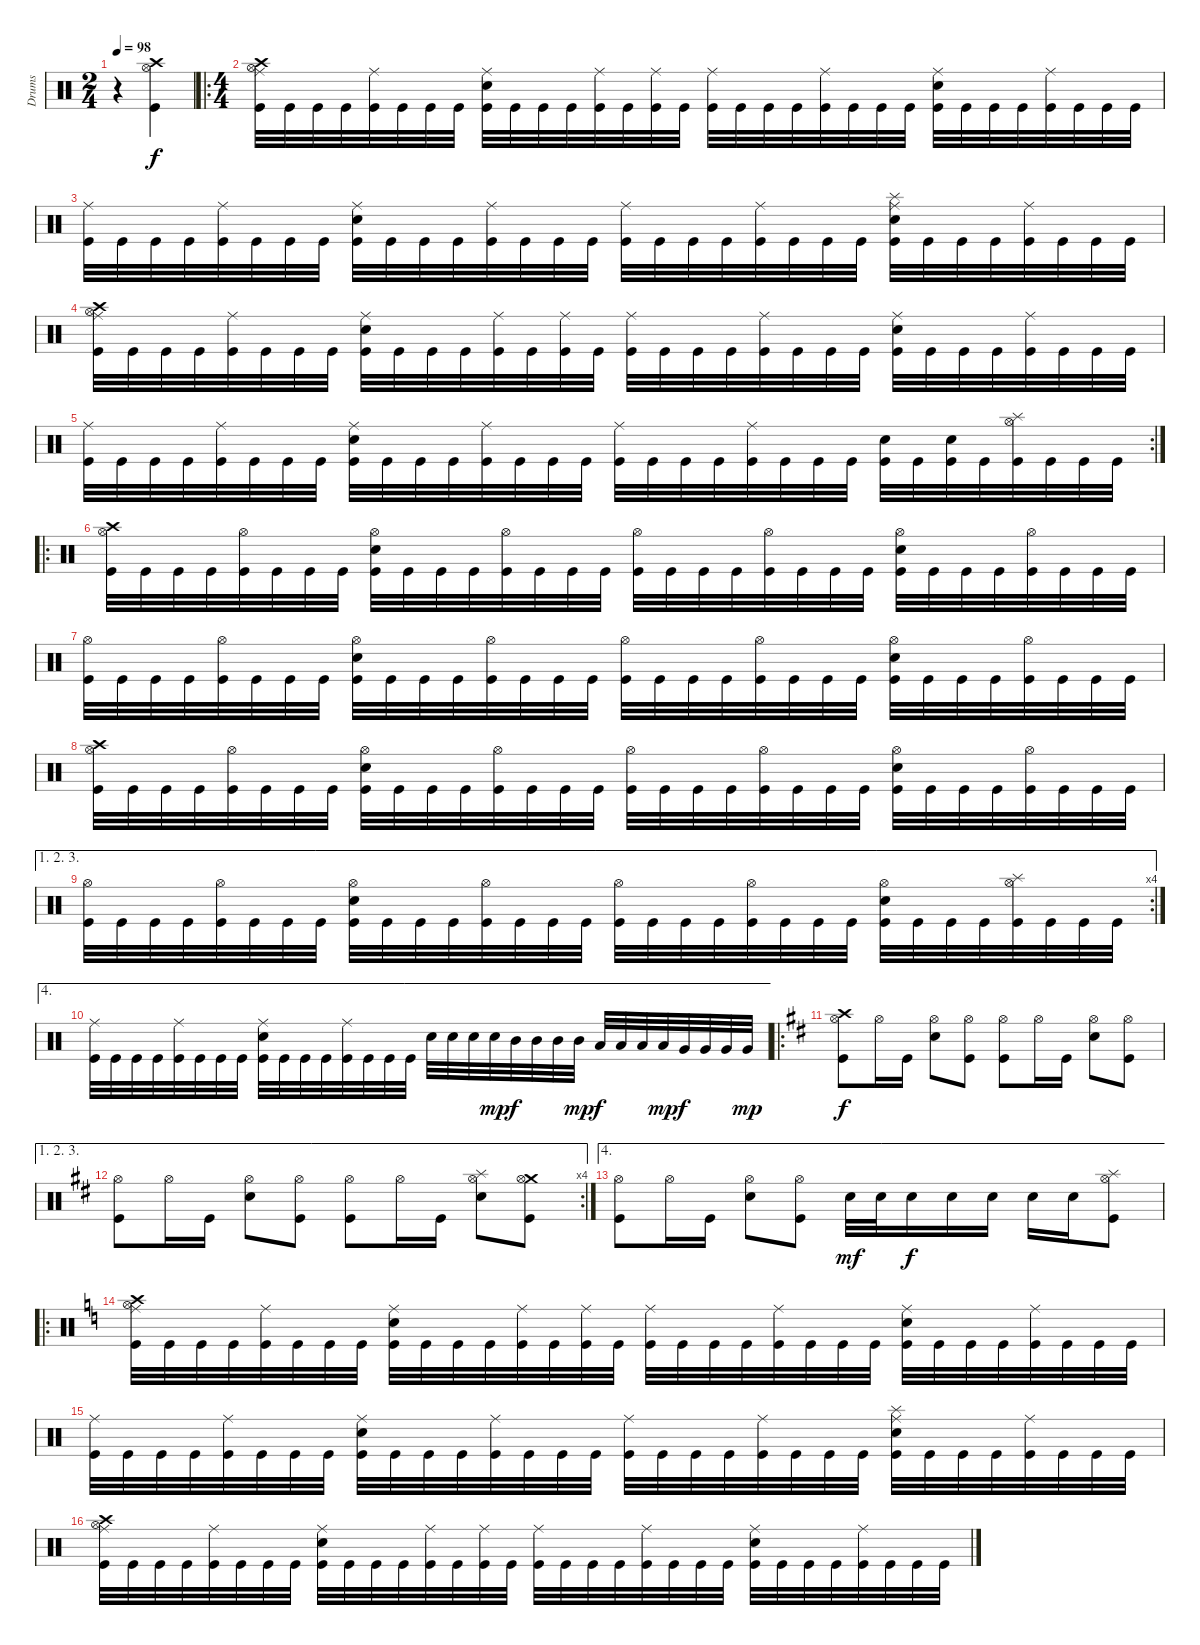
\track ("Drums" "Drums") {instrument percussion}
\staff {score}
\articulation defaults
\ts (2 4)
\tempo 98
\clef neutral
\ks c
r.4{dy f} ("Crash high (hit)" "Hi-Hat (open)" "Kick (hit)").4 |
\ro
\ts (4 4)
("Crash high (hit)" "Hi-Hat (open)" "Ride (middle)" "Kick (hit)").32 "Kick (hit)".32 "Kick (hit)".32 "Kick (hit)".32 ("Ride (middle)" "Kick (hit)").32 "Kick (hit)".32 "Kick (hit)".32 "Kick (hit)".32 ("Ride (middle)" "Electric Snare (hit)" "Kick (hit)").32 "Kick (hit)".32 "Kick (hit)".32 "Kick (hit)".32 ("Ride (middle)" "Kick (hit)").32 "Kick (hit)".32 ("Ride (middle)" "Kick (hit)").32 "Kick (hit)".32 ("Ride (middle)" "Kick (hit)").32 "Kick (hit)".32 "Kick (hit)".32 "Kick (hit)".32 ("Ride (middle)" "Kick (hit)").32 "Kick (hit)".32 "Kick (hit)".32 "Kick (hit)".32 ("Ride (middle)" "Electric Snare (hit)" "Kick (hit)").32 "Kick (hit)".32 "Kick (hit)".32 "Kick (hit)".32 ("Ride (middle)" "Kick (hit)").32 "Kick (hit)".32 "Kick (hit)".32 "Kick (hit)".32 |
("Ride (middle)" "Kick (hit)").32 "Kick (hit)".32 "Kick (hit)".32 "Kick (hit)".32 ("Ride (middle)" "Kick (hit)").32 "Kick (hit)".32 "Kick (hit)".32 "Kick (hit)".32 ("Ride (middle)" "Electric Snare (hit)" "Kick (hit)").32 "Kick (hit)".32 "Kick (hit)".32 "Kick (hit)".32 ("Ride (middle)" "Kick (hit)").32 "Kick (hit)".32 "Kick (hit)".32 "Kick (hit)".32 ("Ride (middle)" "Kick (hit)").32 "Kick (hit)".32 "Kick (hit)".32 "Kick (hit)".32 ("Ride (middle)" "Kick (hit)").32 "Kick (hit)".32 "Kick (hit)".32 "Kick (hit)".32 ("Ride (middle)" "Splash (hit)" "Electric Snare (hit)" "Kick (hit)").32 "Kick (hit)".32 "Kick (hit)".32 "Kick (hit)".32 ("Ride (middle)" "Kick (hit)").32 "Kick (hit)".32 "Kick (hit)".32 "Kick (hit)".32 |
("Crash high (hit)" "Hi-Hat (open)" "Ride (middle)" "Kick (hit)").32 "Kick (hit)".32 "Kick (hit)".32 "Kick (hit)".32 ("Ride (middle)" "Kick (hit)").32 "Kick (hit)".32 "Kick (hit)".32 "Kick (hit)".32 ("Ride (middle)" "Electric Snare (hit)" "Kick (hit)").32 "Kick (hit)".32 "Kick (hit)".32 "Kick (hit)".32 ("Ride (middle)" "Kick (hit)").32 "Kick (hit)".32 ("Ride (middle)" "Kick (hit)").32 "Kick (hit)".32 ("Ride (middle)" "Kick (hit)").32 "Kick (hit)".32 "Kick (hit)".32 "Kick (hit)".32 ("Ride (middle)" "Kick (hit)").32 "Kick (hit)".32 "Kick (hit)".32 "Kick (hit)".32 ("Ride (middle)" "Electric Snare (hit)" "Kick (hit)").32 "Kick (hit)".32 "Kick (hit)".32 "Kick (hit)".32 ("Ride (middle)" "Kick (hit)").32 "Kick (hit)".32 "Kick (hit)".32 "Kick (hit)".32 |
\rc 2
("Ride (middle)" "Kick (hit)").32 "Kick (hit)".32 "Kick (hit)".32 "Kick (hit)".32 ("Ride (middle)" "Kick (hit)").32 "Kick (hit)".32 "Kick (hit)".32 "Kick (hit)".32 ("Ride (middle)" "Electric Snare (hit)" "Kick (hit)").32 "Kick (hit)".32 "Kick (hit)".32 "Kick (hit)".32 ("Ride (middle)" "Kick (hit)").32 "Kick (hit)".32 "Kick (hit)".32 "Kick (hit)".32 ("Ride (middle)" "Kick (hit)").32 "Kick (hit)".32 "Kick (hit)".32 "Kick (hit)".32 ("Ride (middle)" "Kick (hit)").32 "Kick (hit)".32 "Kick (hit)".32 "Kick (hit)".32 ("Electric Snare (hit)" "Kick (hit)").32 "Kick (hit)".32 ("Electric Snare (hit)" "Kick (hit)").32 "Kick (hit)".32 ("Splash (hit)" "Hi-Hat (open)" "Kick (hit)").32 "Kick (hit)".32 "Kick (hit)".32 "Kick (hit)".32 |
\ro
("Crash high (hit)" "Hi-Hat (open)" "Kick (hit)").32 "Kick (hit)".32 "Kick (hit)".32 "Kick (hit)".32 ("Hi-Hat (open)" "Kick (hit)").32 "Kick (hit)".32 "Kick (hit)".32 "Kick (hit)".32 ("Hi-Hat (open)" "Electric Snare (hit)" "Kick (hit)").32 "Kick (hit)".32 "Kick (hit)".32 "Kick (hit)".32 ("Hi-Hat (open)" "Kick (hit)").32 "Kick (hit)".32 "Kick (hit)".32 "Kick (hit)".32 ("Hi-Hat (open)" "Kick (hit)").32 "Kick (hit)".32 "Kick (hit)".32 "Kick (hit)".32 ("Hi-Hat (open)" "Kick (hit)").32 "Kick (hit)".32 "Kick (hit)".32 "Kick (hit)".32 ("Hi-Hat (open)" "Electric Snare (hit)" "Kick (hit)").32 "Kick (hit)".32 "Kick (hit)".32 "Kick (hit)".32 ("Hi-Hat (open)" "Kick (hit)").32 "Kick (hit)".32 "Kick (hit)".32 "Kick (hit)".32 |
("Hi-Hat (open)" "Kick (hit)").32 "Kick (hit)".32 "Kick (hit)".32 "Kick (hit)".32 ("Hi-Hat (open)" "Kick (hit)").32 "Kick (hit)".32 "Kick (hit)".32 "Kick (hit)".32 ("Hi-Hat (open)" "Electric Snare (hit)" "Kick (hit)").32 "Kick (hit)".32 "Kick (hit)".32 "Kick (hit)".32 ("Hi-Hat (open)" "Kick (hit)").32 "Kick (hit)".32 "Kick (hit)".32 "Kick (hit)".32 ("Hi-Hat (open)" "Kick (hit)").32 "Kick (hit)".32 "Kick (hit)".32 "Kick (hit)".32 ("Hi-Hat (open)" "Kick (hit)").32 "Kick (hit)".32 "Kick (hit)".32 "Kick (hit)".32 ("Hi-Hat (open)" "Electric Snare (hit)" "Kick (hit)").32 "Kick (hit)".32 "Kick (hit)".32 "Kick (hit)".32 ("Hi-Hat (open)" "Kick (hit)").32 "Kick (hit)".32 "Kick (hit)".32 "Kick (hit)".32 |
("Crash high (hit)" "Hi-Hat (open)" "Kick (hit)").32 "Kick (hit)".32 "Kick (hit)".32 "Kick (hit)".32 ("Hi-Hat (open)" "Kick (hit)").32 "Kick (hit)".32 "Kick (hit)".32 "Kick (hit)".32 ("Hi-Hat (open)" "Electric Snare (hit)" "Kick (hit)").32 "Kick (hit)".32 "Kick (hit)".32 "Kick (hit)".32 ("Hi-Hat (open)" "Kick (hit)").32 "Kick (hit)".32 "Kick (hit)".32 "Kick (hit)".32 ("Hi-Hat (open)" "Kick (hit)").32 "Kick (hit)".32 "Kick (hit)".32 "Kick (hit)".32 ("Hi-Hat (open)" "Kick (hit)").32 "Kick (hit)".32 "Kick (hit)".32 "Kick (hit)".32 ("Hi-Hat (open)" "Electric Snare (hit)" "Kick (hit)").32 "Kick (hit)".32 "Kick (hit)".32 "Kick (hit)".32 ("Hi-Hat (open)" "Kick (hit)").32 "Kick (hit)".32 "Kick (hit)".32 "Kick (hit)".32 |
\ae (1 2 3)
\rc 4
("Hi-Hat (open)" "Kick (hit)").32 "Kick (hit)".32 "Kick (hit)".32 "Kick (hit)".32 ("Hi-Hat (open)" "Kick (hit)").32 "Kick (hit)".32 "Kick (hit)".32 "Kick (hit)".32 ("Hi-Hat (open)" "Electric Snare (hit)" "Kick (hit)").32 "Kick (hit)".32 "Kick (hit)".32 "Kick (hit)".32 ("Hi-Hat (open)" "Kick (hit)").32 "Kick (hit)".32 "Kick (hit)".32 "Kick (hit)".32 ("Hi-Hat (open)" "Kick (hit)").32 "Kick (hit)".32 "Kick (hit)".32 "Kick (hit)".32 ("Hi-Hat (open)" "Kick (hit)").32 "Kick (hit)".32 "Kick (hit)".32 "Kick (hit)".32 ("Hi-Hat (open)" "Electric Snare (hit)" "Kick (hit)").32 "Kick (hit)".32 "Kick (hit)".32 "Kick (hit)".32 ("Splash (hit)" "Hi-Hat (open)" "Kick (hit)").32 "Kick (hit)".32 "Kick (hit)".32 "Kick (hit)".32 |
\ae 4
("Ride (middle)" "Kick (hit)").32 "Kick (hit)".32 "Kick (hit)".32 "Kick (hit)".32 ("Ride (middle)" "Kick (hit)").32 "Kick (hit)".32 "Kick (hit)".32 "Kick (hit)".32 ("Ride (middle)" "Electric Snare (hit)" "Kick (hit)").32 "Kick (hit)".32 "Kick (hit)".32 "Kick (hit)".32 ("Ride (middle)" "Kick (hit)").32 "Kick (hit)".32 "Kick (hit)".32 "Kick (hit)".32 "Electric Snare (hit)".32 "Electric Snare (hit)".32 "Electric Snare (hit)".32 "Electric Snare (hit)".32{dy mp} "Mid Tom (hit)".32{dy f} "Mid Tom (hit)".32 "Mid Tom (hit)".32 "Mid Tom (hit)".32{dy mp} "Low Tom (hit)".32{dy f} "Low Tom (hit)".32 "Low Tom (hit)".32 "Low Tom (hit)".32{dy mp} "Very Low Tom (hit)".32{dy f} "Very Low Tom (hit)".32 "Very Low Tom (hit)".32 "Very Low Tom (hit)".32{dy mp} |
\ro
\ks bminor
("Crash high (hit)" "Hi-Hat (open)" "Kick (hit)").8{dy f} "Hi-Hat (open)".16 "Kick (hit)".16 ("Hi-Hat (open)" "Electric Snare (hit)").8 ("Hi-Hat (open)" "Kick (hit)").8 ("Hi-Hat (open)" "Kick (hit)").8 "Hi-Hat (open)".16 "Kick (hit)".16 ("Hi-Hat (open)" "Electric Snare (hit)").8 ("Hi-Hat (open)" "Kick (hit)").8 |
\ae (1 2 3)
\rc 4
("Hi-Hat (open)" "Kick (hit)").8 "Hi-Hat (open)".16 "Kick (hit)".16 ("Hi-Hat (open)" "Electric Snare (hit)").8 ("Hi-Hat (open)" "Kick (hit)").8 ("Hi-Hat (open)" "Kick (hit)").8 "Hi-Hat (open)".16 "Kick (hit)".16 ("Splash (hit)" "Hi-Hat (open)" "Electric Snare (hit)").8 ("Crash medium (hit)" "Hi-Hat (open)" "Kick (hit)").8 |
\ae 4
("Hi-Hat (open)" "Kick (hit)").8 "Hi-Hat (open)".16 "Kick (hit)".16 ("Hi-Hat (open)" "Electric Snare (hit)").8 ("Hi-Hat (open)" "Kick (hit)").8 "Electric Snare (hit)".32{dy mf} "Electric Snare (hit)".32 "Electric Snare (hit)".16{dy f} "Electric Snare (hit)".16 "Electric Snare (hit)".16 "Electric Snare (hit)".16 "Electric Snare (hit)".16 ("Splash (hit)" "Hi-Hat (open)" "Kick (hit)").8 |
\ro
\ks aminor
("Crash high (hit)" "Hi-Hat (open)" "Ride (middle)" "Kick (hit)").32 "Kick (hit)".32 "Kick (hit)".32 "Kick (hit)".32 ("Ride (middle)" "Kick (hit)").32 "Kick (hit)".32 "Kick (hit)".32 "Kick (hit)".32 ("Ride (middle)" "Electric Snare (hit)" "Kick (hit)").32 "Kick (hit)".32 "Kick (hit)".32 "Kick (hit)".32 ("Ride (middle)" "Kick (hit)").32 "Kick (hit)".32 ("Ride (middle)" "Kick (hit)").32 "Kick (hit)".32 ("Ride (middle)" "Kick (hit)").32 "Kick (hit)".32 "Kick (hit)".32 "Kick (hit)".32 ("Ride (middle)" "Kick (hit)").32 "Kick (hit)".32 "Kick (hit)".32 "Kick (hit)".32 ("Ride (middle)" "Electric Snare (hit)" "Kick (hit)").32 "Kick (hit)".32 "Kick (hit)".32 "Kick (hit)".32 ("Ride (middle)" "Kick (hit)").32 "Kick (hit)".32 "Kick (hit)".32 "Kick (hit)".32 |
("Ride (middle)" "Kick (hit)").32 "Kick (hit)".32 "Kick (hit)".32 "Kick (hit)".32 ("Ride (middle)" "Kick (hit)").32 "Kick (hit)".32 "Kick (hit)".32 "Kick (hit)".32 ("Ride (middle)" "Electric Snare (hit)" "Kick (hit)").32 "Kick (hit)".32 "Kick (hit)".32 "Kick (hit)".32 ("Ride (middle)" "Kick (hit)").32 "Kick (hit)".32 "Kick (hit)".32 "Kick (hit)".32 ("Ride (middle)" "Kick (hit)").32 "Kick (hit)".32 "Kick (hit)".32 "Kick (hit)".32 ("Ride (middle)" "Kick (hit)").32 "Kick (hit)".32 "Kick (hit)".32 "Kick (hit)".32 ("Ride (middle)" "Splash (hit)" "Electric Snare (hit)" "Kick (hit)").32 "Kick (hit)".32 "Kick (hit)".32 "Kick (hit)".32 ("Ride (middle)" "Kick (hit)").32 "Kick (hit)".32 "Kick (hit)".32 "Kick (hit)".32 |
("Crash high (hit)" "Hi-Hat (open)" "Ride (middle)" "Kick (hit)").32 "Kick (hit)".32 "Kick (hit)".32 "Kick (hit)".32 ("Ride (middle)" "Kick (hit)").32 "Kick (hit)".32 "Kick (hit)".32 "Kick (hit)".32 ("Ride (middle)" "Electric Snare (hit)" "Kick (hit)").32 "Kick (hit)".32 "Kick (hit)".32 "Kick (hit)".32 ("Ride (middle)" "Kick (hit)").32 "Kick (hit)".32 ("Ride (middle)" "Kick (hit)").32 "Kick (hit)".32 ("Ride (middle)" "Kick (hit)").32 "Kick (hit)".32 "Kick (hit)".32 "Kick (hit)".32 ("Ride (middle)" "Kick (hit)").32 "Kick (hit)".32 "Kick (hit)".32 "Kick (hit)".32 ("Ride (middle)" "Electric Snare (hit)" "Kick (hit)").32 "Kick (hit)".32 "Kick (hit)".32 "Kick (hit)".32 ("Ride (middle)" "Kick (hit)").32 "Kick (hit)".32 "Kick (hit)".32 "Kick (hit)".32
